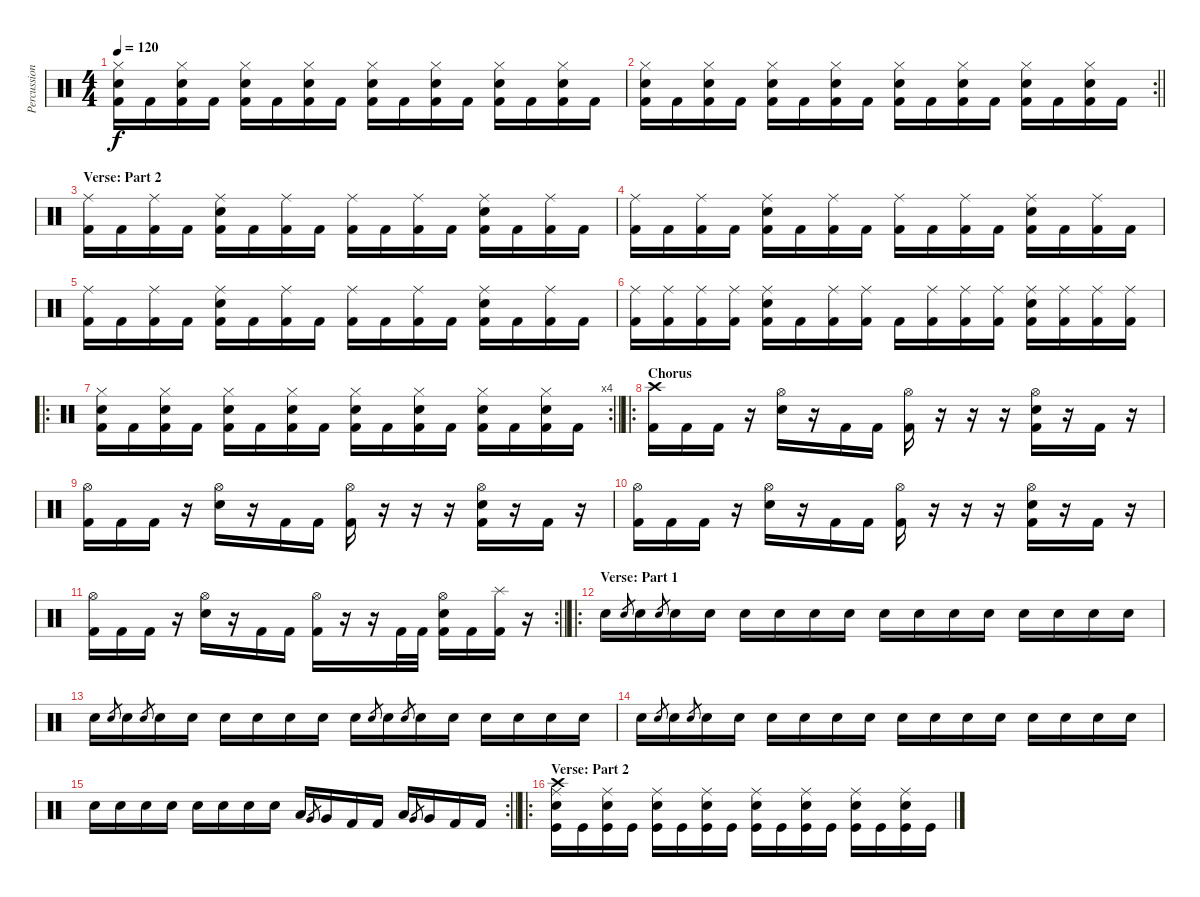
\track ("Percussions" "Percussion") {instrument percussion}
\staff {score}
\articulation defaults
\ts (4 4)
\tempo 120
\clef neutral
\ks c
("Hi-Hat (closed)" "Snare (hit) 2" "Kick (hit) 2").16{dy f} "Kick (hit) 2".16 ("Hi-Hat (closed)" "Snare (hit) 2" "Kick (hit) 2").16 "Kick (hit) 2".16 ("Hi-Hat (closed)" "Snare (hit) 2" "Kick (hit) 2").16 "Kick (hit) 2".16 ("Hi-Hat (closed)" "Snare (hit) 2" "Kick (hit) 2").16 "Kick (hit) 2".16 ("Hi-Hat (closed)" "Snare (hit) 2" "Kick (hit) 2").16 "Kick (hit) 2".16 ("Hi-Hat (closed)" "Snare (hit) 2" "Kick (hit) 2").16 "Kick (hit) 2".16 ("Hi-Hat (closed)" "Snare (hit) 2" "Kick (hit) 2").16 "Kick (hit) 2".16 ("Hi-Hat (closed)" "Snare (hit) 2" "Kick (hit) 2").16 "Kick (hit) 2".16 |
\rc 2
\barLineRight lightlight
("Hi-Hat (closed)" "Snare (hit) 2" "Kick (hit) 2").16 "Kick (hit) 2".16 ("Hi-Hat (closed)" "Snare (hit) 2" "Kick (hit) 2").16 "Kick (hit) 2".16 ("Hi-Hat (closed)" "Snare (hit) 2" "Kick (hit) 2").16 "Kick (hit) 2".16 ("Hi-Hat (closed)" "Snare (hit) 2" "Kick (hit) 2").16 "Kick (hit) 2".16 ("Hi-Hat (closed)" "Snare (hit) 2" "Kick (hit) 2").16 "Kick (hit) 2".16 ("Hi-Hat (closed)" "Snare (hit) 2" "Kick (hit) 2").16 "Kick (hit) 2".16 ("Hi-Hat (closed)" "Snare (hit) 2" "Kick (hit) 2").16 "Kick (hit) 2".16 ("Hi-Hat (closed)" "Snare (hit) 2" "Kick (hit) 2").16 "Kick (hit) 2".16 |
\section ("" "Verse: Part 2")
("Ride (middle)" "Kick (hit) 2").16 "Kick (hit) 2".16 ("Ride (middle)" "Kick (hit) 2").16 "Kick (hit) 2".16 ("Ride (middle)" "Electric Snare (hit)" "Kick (hit) 2").16 "Kick (hit) 2".16 ("Ride (middle)" "Kick (hit) 2").16 "Kick (hit) 2".16 ("Ride (middle)" "Kick (hit) 2").16 "Kick (hit) 2".16 ("Ride (middle)" "Kick (hit) 2").16 "Kick (hit) 2".16 ("Ride (middle)" "Electric Snare (hit)" "Kick (hit) 2").16 "Kick (hit) 2".16 ("Ride (middle)" "Kick (hit) 2").16 "Kick (hit) 2".16 |
("Ride (middle)" "Kick (hit) 2").16 "Kick (hit) 2".16 ("Ride (middle)" "Kick (hit) 2").16 "Kick (hit) 2".16 ("Ride (middle)" "Electric Snare (hit)" "Kick (hit) 2").16 "Kick (hit) 2".16 ("Ride (middle)" "Kick (hit) 2").16 "Kick (hit) 2".16 ("Ride (middle)" "Kick (hit) 2").16 "Kick (hit) 2".16 ("Ride (middle)" "Kick (hit) 2").16 "Kick (hit) 2".16 ("Ride (middle)" "Electric Snare (hit)" "Kick (hit) 2").16 "Kick (hit) 2".16 ("Ride (middle)" "Kick (hit) 2").16 "Kick (hit) 2".16 |
("Ride (middle)" "Kick (hit) 2").16 "Kick (hit) 2".16 ("Ride (middle)" "Kick (hit) 2").16 "Kick (hit) 2".16 ("Ride (middle)" "Electric Snare (hit)" "Kick (hit) 2").16 "Kick (hit) 2".16 ("Ride (middle)" "Kick (hit) 2").16 "Kick (hit) 2".16 ("Ride (middle)" "Kick (hit) 2").16 "Kick (hit) 2".16 ("Ride (middle)" "Kick (hit) 2").16 "Kick (hit) 2".16 ("Ride (middle)" "Electric Snare (hit)" "Kick (hit) 2").16 "Kick (hit) 2".16 ("Ride (middle)" "Kick (hit) 2").16 "Kick (hit) 2".16 |
("Ride (middle)" "Kick (hit) 2").16 ("Ride (middle)" "Kick (hit) 2").16 ("Ride (middle)" "Kick (hit) 2").16 ("Ride (middle)" "Kick (hit) 2").16 ("Ride (middle)" "Electric Snare (hit)" "Kick (hit) 2").16 "Kick (hit) 2".16 ("Ride (middle)" "Kick (hit) 2").16 ("Ride (middle)" "Kick (hit) 2").16 "Kick (hit) 2".16 ("Ride (middle)" "Kick (hit) 2").16 ("Ride (middle)" "Kick (hit) 2").16 ("Ride (middle)" "Kick (hit) 2").16 ("Ride (middle)" "Electric Snare (hit)" "Kick (hit) 2").16 ("Ride (middle)" "Kick (hit) 2").16 ("Ride (middle)" "Kick (hit) 2").16 ("Ride (middle)" "Kick (hit) 2").16 |
\ro
\rc 4
\barLineRight lightlight
("Hi-Hat (closed)" "Snare (hit) 2" "Kick (hit) 2").16 "Kick (hit) 2".16 ("Hi-Hat (closed)" "Snare (hit) 2" "Kick (hit) 2").16 "Kick (hit) 2".16 ("Hi-Hat (closed)" "Snare (hit) 2" "Kick (hit) 2").16 "Kick (hit) 2".16 ("Hi-Hat (closed)" "Snare (hit) 2" "Kick (hit) 2").16 "Kick (hit) 2".16 ("Hi-Hat (closed)" "Snare (hit) 2" "Kick (hit) 2").16 "Kick (hit) 2".16 ("Hi-Hat (closed)" "Snare (hit) 2" "Kick (hit) 2").16 "Kick (hit) 2".16 ("Hi-Hat (closed)" "Snare (hit) 2" "Kick (hit) 2").16 "Kick (hit) 2".16 ("Hi-Hat (closed)" "Snare (hit) 2" "Kick (hit) 2").16 "Kick (hit) 2".16 |
\ro
\section ("" "Chorus")
("Crash high (hit)" "Kick (hit) 2").16 "Kick (hit) 2".16 "Kick (hit) 2".16 r.16 ("Hi-Hat (open)" "Electric Snare (hit)").16 r.16 "Kick (hit) 2".16 "Kick (hit) 2".16 ("Hi-Hat (open)" "Kick (hit) 2").16 r.16 r.16 r.16 ("Hi-Hat (open)" "Electric Snare (hit)" "Kick (hit) 2").16 r.16 "Kick (hit) 2".16 r.16 |
("Hi-Hat (open)" "Kick (hit) 2").16 "Kick (hit) 2".16 "Kick (hit) 2".16 r.16 ("Hi-Hat (open)" "Electric Snare (hit)").16 r.16 "Kick (hit) 2".16 "Kick (hit) 2".16 ("Hi-Hat (open)" "Kick (hit) 2").16 r.16 r.16 r.16 ("Hi-Hat (open)" "Electric Snare (hit)" "Kick (hit) 2").16 r.16 "Kick (hit) 2".16 r.16 |
("Hi-Hat (open)" "Kick (hit) 2").16 "Kick (hit) 2".16 "Kick (hit) 2".16 r.16 ("Hi-Hat (open)" "Electric Snare (hit)").16 r.16 "Kick (hit) 2".16 "Kick (hit) 2".16 ("Hi-Hat (open)" "Kick (hit) 2").16 r.16 r.16 r.16 ("Hi-Hat (open)" "Electric Snare (hit)" "Kick (hit) 2").16 r.16 "Kick (hit) 2".16 r.16 |
\rc 2
\barLineRight lightlight
("Hi-Hat (open)" "Kick (hit) 2").16 "Kick (hit) 2".16 "Kick (hit) 2".16 r.16 ("Hi-Hat (open)" "Electric Snare (hit)").16 r.16 "Kick (hit) 2".16 "Kick (hit) 2".16 ("Hi-Hat (open)" "Kick (hit) 2").16 r.16 r.16 "Kick (hit) 2".32 "Kick (hit) 2".32 ("Hi-Hat (open)" "Electric Snare (hit)" "Kick (hit) 2").16 "Kick (hit) 2".16 ("Splash (hit)" "Kick (hit) 2").16 r.16 |
\ro
\section ("" "Verse: Part 1")
"Electric Snare (hit)".16{volume 7} "Electric Snare (hit)".8{gr} "Electric Snare (hit)".16 "Electric Snare (hit)".8{gr} "Electric Snare (hit)".16 "Electric Snare (hit)".16 "Electric Snare (hit)".16 "Electric Snare (hit)".16 "Electric Snare (hit)".16 "Electric Snare (hit)".16 "Electric Snare (hit)".16 "Electric Snare (hit)".16 "Electric Snare (hit)".16 "Electric Snare (hit)".16 "Electric Snare (hit)".16 "Electric Snare (hit)".16 "Electric Snare (hit)".16 "Electric Snare (hit)".16 |
"Electric Snare (hit)".16{volume 8} "Electric Snare (hit)".8{gr} "Electric Snare (hit)".16 "Electric Snare (hit)".8{gr} "Electric Snare (hit)".16 "Electric Snare (hit)".16 "Electric Snare (hit)".16 "Electric Snare (hit)".16 "Electric Snare (hit)".16 "Electric Snare (hit)".16 "Electric Snare (hit)".16 "Electric Snare (hit)".8{gr} "Electric Snare (hit)".16 "Electric Snare (hit)".8{gr} "Electric Snare (hit)".16 "Electric Snare (hit)".16 "Electric Snare (hit)".16 "Electric Snare (hit)".16 "Electric Snare (hit)".16 "Electric Snare (hit)".16 |
"Electric Snare (hit)".16{volume 9} "Electric Snare (hit)".8{gr} "Electric Snare (hit)".16 "Electric Snare (hit)".8{gr} "Electric Snare (hit)".16 "Electric Snare (hit)".16 "Electric Snare (hit)".16 "Electric Snare (hit)".16 "Electric Snare (hit)".16 "Electric Snare (hit)".16 "Electric Snare (hit)".16{volume 9} "Electric Snare (hit)".16 "Electric Snare (hit)".16 "Electric Snare (hit)".16 "Electric Snare (hit)".16 "Electric Snare (hit)".16 "Electric Snare (hit)".16 "Electric Snare (hit)".16 |
\rc 2
\barLineRight lightlight "Electric Snare (hit)".16{volume 11} "Electric Snare (hit)".16 "Electric Snare (hit)".16 "Electric Snare (hit)".16 "Electric Snare (hit)".16{volume 12} "Electric Snare (hit)".16 "Electric Snare (hit)".16 "Electric Snare (hit)".16 "Low Tom (hit)".16{volume 13} "Very Low Tom (hit)".8{gr} "Very Low Tom (hit)".16 "Kick (hit) 2".16 "Kick (hit) 2".16 "Low Tom (hit)".16 "Very Low Tom (hit)".8{gr} "Very Low Tom (hit)".16 "Kick (hit) 2".16 "Kick (hit) 2".16
|
\ro
\section ("" "Verse: Part 2")
("Crash high (hit)" "Ride (middle)" "Electric Snare (hit)" "Kick (hit)").16 "Kick (hit)".16 ("Ride (middle)" "Electric Snare (hit)" "Kick (hit)").16 "Kick (hit)".16 ("Ride (middle)" "Electric Snare (hit)" "Kick (hit)").16 "Kick (hit)".16 ("Ride (middle)" "Electric Snare (hit)" "Kick (hit)").16 "Kick (hit)".16 ("Ride (middle)" "Electric Snare (hit)" "Kick (hit)").16 "Kick (hit)".16 ("Ride (middle)" "Electric Snare (hit)" "Kick (hit)").16 "Kick (hit)".16 ("Ride (middle)" "Electric Snare (hit)" "Kick (hit)").16 "Kick (hit)".16 ("Ride (middle)" "Electric Snare (hit)" "Kick (hit)").16 "Kick (hit)".16
